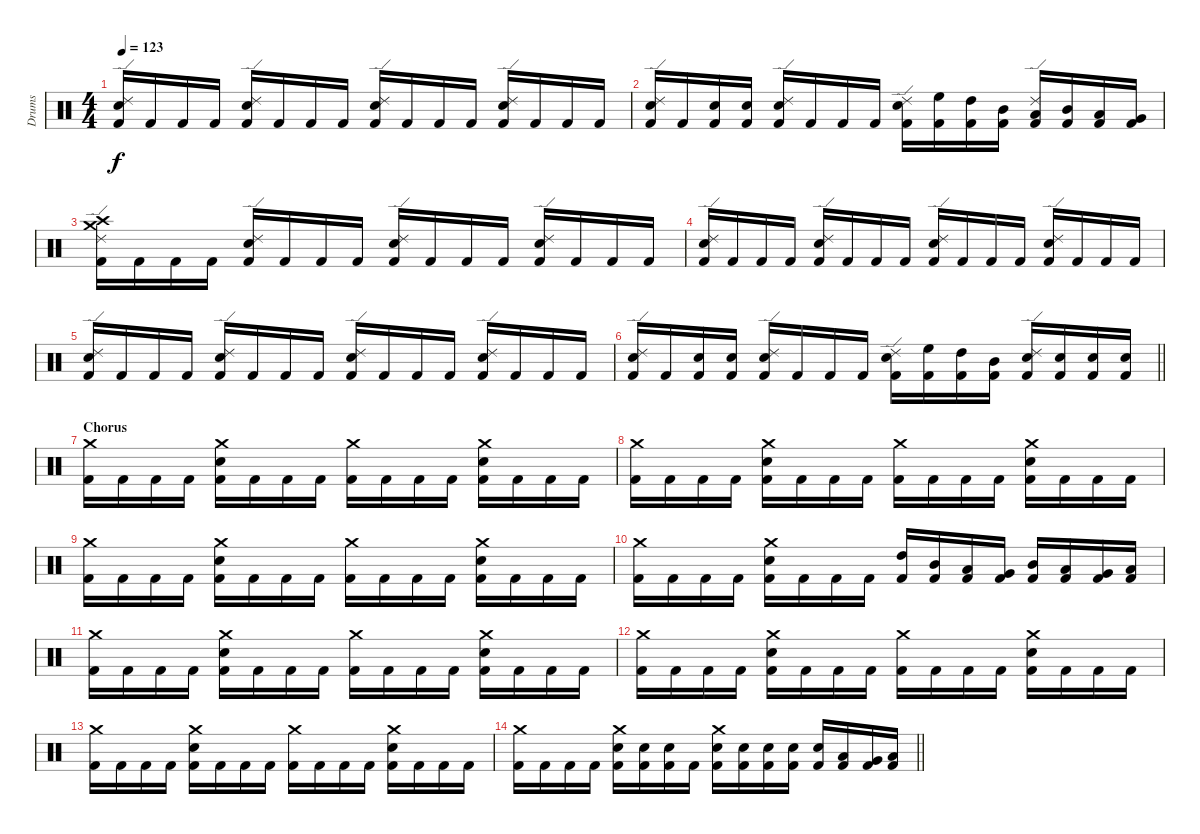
\track ("Drums" "Drums") {instrument percussion}
\staff {score}
\articulation defaults
\ts (4 4)
\tempo 123
\clef neutral
\ks c
("Kick (hit) 2" "Snare (hit) 2" "Ride (edge) 2").16{dy f} "Kick (hit) 2".16 "Kick (hit) 2".16 "Kick (hit) 2".16 ("Kick (hit) 2" "Snare (hit) 2" "Ride (edge) 2").16 "Kick (hit) 2".16 "Kick (hit) 2".16 "Kick (hit) 2".16 ("Kick (hit) 2" "Snare (hit) 2" "Ride (edge) 2").16 "Kick (hit) 2".16 "Kick (hit) 2".16 "Kick (hit) 2".16 ("Kick (hit) 2" "Snare (hit) 2" "Ride (edge) 2").16 "Kick (hit) 2".16 "Kick (hit) 2".16 "Kick (hit) 2".16 |
("Kick (hit) 2" "Snare (hit) 2" "Ride (edge) 2").16 "Kick (hit) 2".16 ("Kick (hit) 2" "Snare (hit) 2").16 ("Kick (hit) 2" "Snare (hit) 2").16 ("Kick (hit) 2" "Snare (hit) 2" "Ride (edge) 2").16 "Kick (hit) 2".16 "Kick (hit) 2".16 "Kick (hit) 2".16 ("Kick (hit) 2" "Snare (hit) 2" "Ride (edge) 2").16 ("Kick (hit) 2" "High Floor Tom (hit)").16 ("Kick (hit) 2" "High Tom (hit)").16 ("Kick (hit) 2" "Mid Tom (hit)").16 ("Kick (hit) 2" "Ride (edge) 2" "Low Tom (hit)").16 ("Kick (hit) 2" "Mid Tom (hit)").16 ("Kick (hit) 2" "Low Tom (hit)").16 ("Kick (hit) 2" "Very Low Tom (hit)").16 |
("Kick (hit) 2" "Ride (edge) 2" "Crash high (hit)" "Crash medium (hit)").16 "Kick (hit) 2".16 "Kick (hit) 2".16 "Kick (hit) 2".16 ("Kick (hit) 2" "Snare (hit) 2" "Ride (edge) 2").16 "Kick (hit) 2".16 "Kick (hit) 2".16 "Kick (hit) 2".16 ("Kick (hit) 2" "Snare (hit) 2" "Ride (edge) 2").16 "Kick (hit) 2".16 "Kick (hit) 2".16 "Kick (hit) 2".16 ("Kick (hit) 2" "Snare (hit) 2" "Ride (edge) 2").16 "Kick (hit) 2".16 "Kick (hit) 2".16 "Kick (hit) 2".16 |
("Kick (hit) 2" "Snare (hit) 2" "Ride (edge) 2").16 "Kick (hit) 2".16 "Kick (hit) 2".16 "Kick (hit) 2".16 ("Kick (hit) 2" "Snare (hit) 2" "Ride (edge) 2").16 "Kick (hit) 2".16 "Kick (hit) 2".16 "Kick (hit) 2".16 ("Kick (hit) 2" "Snare (hit) 2" "Ride (edge) 2").16 "Kick (hit) 2".16 "Kick (hit) 2".16 "Kick (hit) 2".16 ("Kick (hit) 2" "Snare (hit) 2" "Ride (edge) 2").16 "Kick (hit) 2".16 "Kick (hit) 2".16 "Kick (hit) 2".16 |
("Kick (hit) 2" "Snare (hit) 2" "Ride (edge) 2").16 "Kick (hit) 2".16 "Kick (hit) 2".16 "Kick (hit) 2".16 ("Kick (hit) 2" "Snare (hit) 2" "Ride (edge) 2").16 "Kick (hit) 2".16 "Kick (hit) 2".16 "Kick (hit) 2".16 ("Kick (hit) 2" "Snare (hit) 2" "Ride (edge) 2").16 "Kick (hit) 2".16 "Kick (hit) 2".16 "Kick (hit) 2".16 ("Kick (hit) 2" "Snare (hit) 2" "Ride (edge) 2").16 "Kick (hit) 2".16 "Kick (hit) 2".16 "Kick (hit) 2".16 |
\barLineRight lightlight
("Kick (hit) 2" "Snare (hit) 2" "Ride (edge) 2").16 "Kick (hit) 2".16 ("Kick (hit) 2" "Snare (hit) 2").16 ("Kick (hit) 2" "Snare (hit) 2").16 ("Kick (hit) 2" "Snare (hit) 2" "Ride (edge) 2").16 "Kick (hit) 2".16 "Kick (hit) 2".16 "Kick (hit) 2".16 ("Kick (hit) 2" "Snare (hit) 2" "Ride (edge) 2").16 ("Kick (hit) 2" "High Floor Tom (hit)").16 ("Kick (hit) 2" "High Tom (hit)").16 ("Kick (hit) 2" "Mid Tom (hit)").16 ("Kick (hit) 2" "Snare (hit) 2" "Ride (edge) 2").16 ("Kick (hit) 2" "Snare (hit) 2").16 ("Kick (hit) 2" "Snare (hit) 2").16 ("Kick (hit) 2" "Snare (hit) 2").16 |
\section ("" "Chorus")
("Kick (hit) 2" "Crash medium (hit)").16 "Kick (hit) 2".16 "Kick (hit) 2".16 "Kick (hit) 2".16 ("Kick (hit) 2" "Snare (hit) 2" "Crash medium (hit)").16 "Kick (hit) 2".16 "Kick (hit) 2".16 "Kick (hit) 2".16 ("Kick (hit) 2" "Crash medium (hit)").16 "Kick (hit) 2".16 "Kick (hit) 2".16 "Kick (hit) 2".16 ("Kick (hit) 2" "Snare (hit) 2" "Crash medium (hit)").16 "Kick (hit) 2".16 "Kick (hit) 2".16 "Kick (hit) 2".16 |
("Kick (hit) 2" "Crash medium (hit)").16 "Kick (hit) 2".16 "Kick (hit) 2".16 "Kick (hit) 2".16 ("Kick (hit) 2" "Snare (hit) 2" "Crash medium (hit)").16 "Kick (hit) 2".16 "Kick (hit) 2".16 "Kick (hit) 2".16 ("Kick (hit) 2" "Crash medium (hit)").16 "Kick (hit) 2".16 "Kick (hit) 2".16 "Kick (hit) 2".16 ("Kick (hit) 2" "Snare (hit) 2" "Crash medium (hit)").16 "Kick (hit) 2".16 "Kick (hit) 2".16 "Kick (hit) 2".16 |
("Kick (hit) 2" "Crash medium (hit)").16 "Kick (hit) 2".16 "Kick (hit) 2".16 "Kick (hit) 2".16 ("Kick (hit) 2" "Snare (hit) 2" "Crash medium (hit)").16 "Kick (hit) 2".16 "Kick (hit) 2".16 "Kick (hit) 2".16 ("Kick (hit) 2" "Crash medium (hit)").16 "Kick (hit) 2".16 "Kick (hit) 2".16 "Kick (hit) 2".16 ("Kick (hit) 2" "Snare (hit) 2" "Crash medium (hit)").16 "Kick (hit) 2".16 "Kick (hit) 2".16 "Kick (hit) 2".16 |
("Kick (hit) 2" "Crash medium (hit)").16 "Kick (hit) 2".16 "Kick (hit) 2".16 "Kick (hit) 2".16 ("Kick (hit) 2" "Snare (hit) 2" "Crash medium (hit)").16 "Kick (hit) 2".16 "Kick (hit) 2".16 "Kick (hit) 2".16 ("Kick (hit) 2" "High Tom (hit)").16 ("Kick (hit) 2" "Mid Tom (hit)").16 ("Kick (hit) 2" "Low Tom (hit)").16 ("Kick (hit) 2" "Very Low Tom (hit)").16 ("Kick (hit) 2" "Mid Tom (hit)").16 ("Kick (hit) 2" "Low Tom (hit)").16 ("Kick (hit) 2" "Very Low Tom (hit)").16 ("Kick (hit) 2" "Low Floor Tom (hit)").16 |
("Kick (hit) 2" "Crash medium (hit)").16 "Kick (hit) 2".16 "Kick (hit) 2".16 "Kick (hit) 2".16 ("Kick (hit) 2" "Snare (hit) 2" "Crash medium (hit)").16 "Kick (hit) 2".16 "Kick (hit) 2".16 "Kick (hit) 2".16 ("Kick (hit) 2" "Crash medium (hit)").16 "Kick (hit) 2".16 "Kick (hit) 2".16 "Kick (hit) 2".16 ("Kick (hit) 2" "Snare (hit) 2" "Crash medium (hit)").16 "Kick (hit) 2".16 "Kick (hit) 2".16 "Kick (hit) 2".16 |
("Kick (hit) 2" "Crash medium (hit)").16 "Kick (hit) 2".16 "Kick (hit) 2".16 "Kick (hit) 2".16 ("Kick (hit) 2" "Snare (hit) 2" "Crash medium (hit)").16 "Kick (hit) 2".16 "Kick (hit) 2".16 "Kick (hit) 2".16 ("Kick (hit) 2" "Crash medium (hit)").16 "Kick (hit) 2".16 "Kick (hit) 2".16 "Kick (hit) 2".16 ("Kick (hit) 2" "Snare (hit) 2" "Crash medium (hit)").16 "Kick (hit) 2".16 "Kick (hit) 2".16 "Kick (hit) 2".16 |
("Kick (hit) 2" "Crash medium (hit)").16 "Kick (hit) 2".16 "Kick (hit) 2".16 "Kick (hit) 2".16 ("Kick (hit) 2" "Snare (hit) 2" "Crash medium (hit)").16 "Kick (hit) 2".16 "Kick (hit) 2".16 "Kick (hit) 2".16 ("Kick (hit) 2" "Crash medium (hit)").16 "Kick (hit) 2".16 "Kick (hit) 2".16 "Kick (hit) 2".16 ("Kick (hit) 2" "Snare (hit) 2" "Crash medium (hit)").16 "Kick (hit) 2".16 "Kick (hit) 2".16 "Kick (hit) 2".16 |
\barLineRight lightlight
("Kick (hit) 2" "Crash medium (hit)").16 "Kick (hit) 2".16 "Kick (hit) 2".16 "Kick (hit) 2".16 ("Kick (hit) 2" "Snare (hit) 2" "Crash medium (hit)").16 ("Kick (hit) 2" "Snare (hit) 2").16 ("Kick (hit) 2" "Snare (hit) 2").16 "Kick (hit) 2".16 ("Kick (hit) 2" "Snare (hit) 2" "Crash medium (hit)").16 ("Kick (hit) 2" "Snare (hit) 2").16 ("Kick (hit) 2" "Snare (hit) 2").16 ("Kick (hit) 2" "Snare (hit) 2").16 ("Kick (hit) 2" "Snare (hit) 2").16 ("Kick (hit) 2" "Low Tom (hit)").16 ("Kick (hit) 2" "Very Low Tom (hit)").16 ("Kick (hit) 2" "Low Floor Tom (hit)").16
